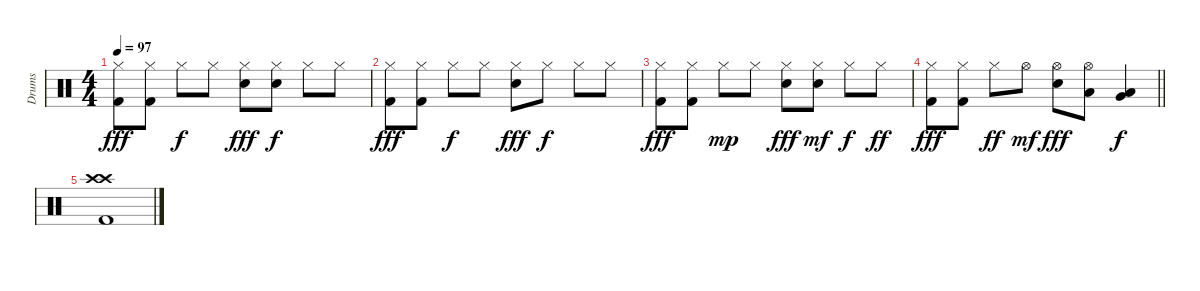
\track ("Drums" "Drums") {instrument percussion}
\staff {score}
\articulation defaults
\ts (4 4)
\tempo 97
\clef neutral
\ks c
("Hi-Hat (closed)" "Kick (hit) 2").8{dy fff} ("Hi-Hat (closed)" "Kick (hit) 2").8 "Hi-Hat (closed)".8{dy f} "Hi-Hat (closed)".8 ("Hi-Hat (closed)" "Electric Snare (hit)").8{dy fff} ("Hi-Hat (closed)" "Electric Snare (hit)").8{dy f} "Hi-Hat (closed)".8 "Hi-Hat (closed)".8 |
("Hi-Hat (closed)" "Kick (hit) 2").8{dy fff} ("Hi-Hat (closed)" "Kick (hit) 2").8 "Hi-Hat (closed)".8{dy f} "Hi-Hat (closed)".8 ("Hi-Hat (closed)" "Electric Snare (hit)").8{dy fff} "Hi-Hat (closed)".8{dy f} "Hi-Hat (closed)".8 "Hi-Hat (closed)".8 |
("Hi-Hat (closed)" "Kick (hit) 2").8{dy fff} ("Hi-Hat (closed)" "Kick (hit) 2").8 "Hi-Hat (closed)".8{dy mp} "Hi-Hat (closed)".8 ("Hi-Hat (closed)" "Electric Snare (hit)").8{dy fff} ("Hi-Hat (closed)" "Electric Snare (hit)").8{dy mf} "Hi-Hat (closed)".8{dy f} "Hi-Hat (closed)".8{dy ff} |
\barLineRight lightlight
("Hi-Hat (closed)" "Kick (hit) 2").8{dy fff} ("Hi-Hat (closed)" "Kick (hit) 2").8 "Hi-Hat (closed)".8{dy ff} "Hi-Hat (open)".8{dy mf} ("Hi-Hat (open)" "Electric Snare (hit)").8{dy fff} ("Hi-Hat (open)" "Low Floor Tom (hit)").8 ("Very Low Tom (hit)" "Low Tom (hit)").4{dy f} |
("Crash high (hit)" "Crash high (hit)" "Kick (hit) 2").1
